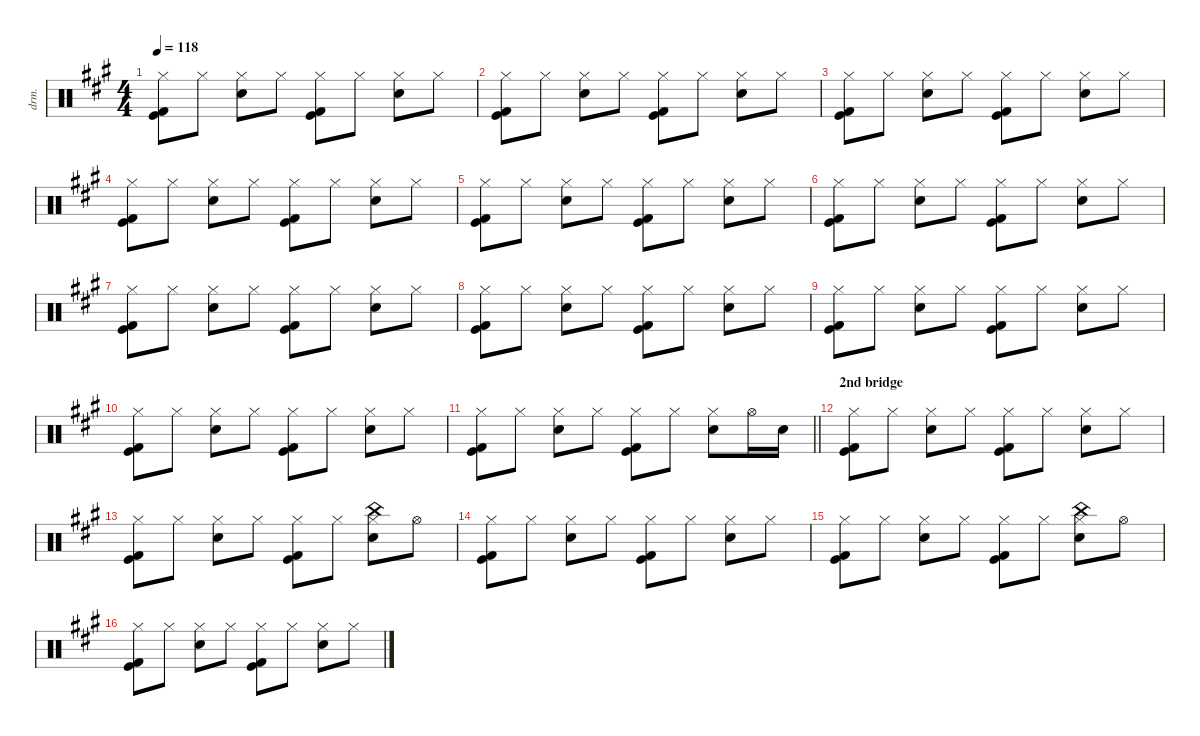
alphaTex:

\defaultSystemsLayout 4
\hideDynamics
\bracketExtendMode nobrackets
\otherSystemsTrackNameOrientation horizontal
\track ("drums" "drm.") {instrument percussion}
\staff {score}
\articulation defaults
\ts (4 4)
\tempo 118
\clef neutral
\ks f#minor
("Hi-Hat (closed)"{acc forcenatural} "Kick (hit)"{acc forcenatural} "Kick (hit) 2"{acc forcenatural}).8{dy f} "Hi-Hat (closed)"{acc forcenatural}.8{dy mf} ("Hi-Hat (closed)"{acc forcenatural} "Snare (hit) 2"{acc forcenatural}).8{dy f} "Hi-Hat (closed)"{acc forcenatural}.8{dy mf} ("Hi-Hat (closed)"{acc forcenatural} "Kick (hit)"{acc forcenatural} "Kick (hit) 2"{acc forcenatural}).8{dy f} "Hi-Hat (closed)"{acc forcenatural}.8{dy mf} ("Hi-Hat (closed)"{acc forcenatural} "Snare (hit) 2"{acc forcenatural}).8{dy f} "Hi-Hat (closed)"{acc forcenatural}.8{dy mf} |
("Hi-Hat (closed)"{acc forcenatural} "Kick (hit)"{acc forcenatural} "Kick (hit) 2"{acc forcenatural}).8{dy f} "Hi-Hat (closed)"{acc forcenatural}.8{dy mf} ("Hi-Hat (closed)"{acc forcenatural} "Snare (hit) 2"{acc forcenatural}).8{dy f} "Hi-Hat (closed)"{acc forcenatural}.8{dy mf} ("Hi-Hat (closed)"{acc forcenatural} "Kick (hit)"{acc forcenatural} "Kick (hit) 2"{acc forcenatural}).8{dy f} "Hi-Hat (closed)"{acc forcenatural}.8{dy mf} ("Hi-Hat (closed)"{acc forcenatural} "Snare (hit) 2"{acc forcenatural}).8{dy f} "Hi-Hat (closed)"{acc forcenatural}.8{dy mf} |
("Hi-Hat (closed)"{acc forcenatural} "Kick (hit)"{acc forcenatural} "Kick (hit) 2"{acc forcenatural}).8{dy f} "Hi-Hat (closed)"{acc forcenatural}.8{dy mf} ("Hi-Hat (closed)"{acc forcenatural} "Snare (hit) 2"{acc forcenatural}).8{dy f} "Hi-Hat (closed)"{acc forcenatural}.8{dy mf} ("Hi-Hat (closed)"{acc forcenatural} "Kick (hit)"{acc forcenatural} "Kick (hit) 2"{acc forcenatural}).8{dy f} "Hi-Hat (closed)"{acc forcenatural}.8{dy mf} ("Hi-Hat (closed)"{acc forcenatural} "Snare (hit) 2"{acc forcenatural}).8{dy f} "Hi-Hat (closed)"{acc forcenatural}.8{dy mf} |
("Hi-Hat (closed)"{acc forcenatural} "Kick (hit)"{acc forcenatural} "Kick (hit) 2"{acc forcenatural}).8{dy f} "Hi-Hat (closed)"{acc forcenatural}.8{dy mf} ("Hi-Hat (closed)"{acc forcenatural} "Snare (hit) 2"{acc forcenatural}).8{dy f} "Hi-Hat (closed)"{acc forcenatural}.8{dy mf} ("Hi-Hat (closed)"{acc forcenatural} "Kick (hit)"{acc forcenatural} "Kick (hit) 2"{acc forcenatural}).8{dy f} "Hi-Hat (closed)"{acc forcenatural}.8{dy mf} ("Hi-Hat (closed)"{acc forcenatural} "Snare (hit) 2"{acc forcenatural}).8{dy f} "Hi-Hat (closed)"{acc forcenatural}.8{dy mf} |
("Hi-Hat (closed)"{acc forcenatural} "Kick (hit)"{acc forcenatural} "Kick (hit) 2"{acc forcenatural}).8{dy f} "Hi-Hat (closed)"{acc forcenatural}.8{dy mf} ("Hi-Hat (closed)"{acc forcenatural} "Snare (hit) 2"{acc forcenatural}).8{dy f} "Hi-Hat (closed)"{acc forcenatural}.8{dy mf} ("Hi-Hat (closed)"{acc forcenatural} "Kick (hit)"{acc forcenatural} "Kick (hit) 2"{acc forcenatural}).8{dy f} "Hi-Hat (closed)"{acc forcenatural}.8{dy mf} ("Hi-Hat (closed)"{acc forcenatural} "Snare (hit) 2"{acc forcenatural}).8{dy f} "Hi-Hat (closed)"{acc forcenatural}.8{dy mf} |
("Hi-Hat (closed)"{acc forcenatural} "Kick (hit)"{acc forcenatural} "Kick (hit) 2"{acc forcenatural}).8{dy f} "Hi-Hat (closed)"{acc forcenatural}.8{dy mf} ("Hi-Hat (closed)"{acc forcenatural} "Snare (hit) 2"{acc forcenatural}).8{dy f} "Hi-Hat (closed)"{acc forcenatural}.8{dy mf} ("Hi-Hat (closed)"{acc forcenatural} "Kick (hit)"{acc forcenatural} "Kick (hit) 2"{acc forcenatural}).8{dy f} "Hi-Hat (closed)"{acc forcenatural}.8{dy mf} ("Hi-Hat (closed)"{acc forcenatural} "Snare (hit) 2"{acc forcenatural}).8{dy f} "Hi-Hat (closed)"{acc forcenatural}.8{dy mf} |
("Hi-Hat (closed)"{acc forcenatural} "Kick (hit)"{acc forcenatural} "Kick (hit) 2"{acc forcenatural}).8{dy f} "Hi-Hat (closed)"{acc forcenatural}.8{dy mf} ("Hi-Hat (closed)"{acc forcenatural} "Snare (hit) 2"{acc forcenatural}).8{dy f} "Hi-Hat (closed)"{acc forcenatural}.8{dy mf} ("Hi-Hat (closed)"{acc forcenatural} "Kick (hit)"{acc forcenatural} "Kick (hit) 2"{acc forcenatural}).8{dy f} "Hi-Hat (closed)"{acc forcenatural}.8{dy mf} ("Hi-Hat (closed)"{acc forcenatural} "Snare (hit) 2"{acc forcenatural}).8{dy f} "Hi-Hat (closed)"{acc forcenatural}.8{dy mf} |
("Hi-Hat (closed)"{acc forcenatural} "Kick (hit)"{acc forcenatural} "Kick (hit) 2"{acc forcenatural}).8{dy f} "Hi-Hat (closed)"{acc forcenatural}.8{dy mf} ("Hi-Hat (closed)"{acc forcenatural} "Snare (hit) 2"{acc forcenatural}).8{dy f} "Hi-Hat (closed)"{acc forcenatural}.8{dy mf} ("Hi-Hat (closed)"{acc forcenatural} "Kick (hit)"{acc forcenatural} "Kick (hit) 2"{acc forcenatural}).8{dy f} "Hi-Hat (closed)"{acc forcenatural}.8{dy mf} ("Hi-Hat (closed)"{acc forcenatural} "Snare (hit) 2"{acc forcenatural}).8{dy f} "Hi-Hat (closed)"{acc forcenatural}.8{dy mf} |
("Hi-Hat (closed)"{acc forcenatural} "Kick (hit)"{acc forcenatural} "Kick (hit) 2"{acc forcenatural}).8{dy f} "Hi-Hat (closed)"{acc forcenatural}.8{dy mf} ("Hi-Hat (closed)"{acc forcenatural} "Snare (hit) 2"{acc forcenatural}).8{dy f} "Hi-Hat (closed)"{acc forcenatural}.8{dy mf} ("Hi-Hat (closed)"{acc forcenatural} "Kick (hit)"{acc forcenatural} "Kick (hit) 2"{acc forcenatural}).8{dy f} "Hi-Hat (closed)"{acc forcenatural}.8{dy mf} ("Hi-Hat (closed)"{acc forcenatural} "Snare (hit) 2"{acc forcenatural}).8{dy f} "Hi-Hat (closed)"{acc forcenatural}.8{dy mf} |
("Hi-Hat (closed)"{acc forcenatural} "Kick (hit)"{acc forcenatural} "Kick (hit) 2"{acc forcenatural}).8{dy f} "Hi-Hat (closed)"{acc forcenatural}.8{dy mf} ("Hi-Hat (closed)"{acc forcenatural} "Snare (hit) 2"{acc forcenatural}).8{dy f} "Hi-Hat (closed)"{acc forcenatural}.8{dy mf} ("Hi-Hat (closed)"{acc forcenatural} "Kick (hit)"{acc forcenatural} "Kick (hit) 2"{acc forcenatural}).8{dy f} "Hi-Hat (closed)"{acc forcenatural}.8{dy mf} ("Hi-Hat (closed)"{acc forcenatural} "Snare (hit) 2"{acc forcenatural}).8{dy f} "Hi-Hat (closed)"{acc forcenatural}.8{dy mf} |
\barLineRight lightlight
("Hi-Hat (closed)"{acc forcenatural} "Kick (hit)"{acc forcenatural} "Kick (hit) 2"{acc forcenatural}).8{dy f} "Hi-Hat (closed)"{acc forcenatural}.8{dy mf} ("Hi-Hat (closed)"{acc forcenatural} "Snare (hit) 2"{acc forcenatural}).8{dy f} "Hi-Hat (closed)"{acc forcenatural}.8{dy mf} ("Hi-Hat (closed)"{acc forcenatural} "Kick (hit)"{acc forcenatural} "Kick (hit) 2"{acc forcenatural}).8{dy f} "Hi-Hat (closed)"{acc forcenatural}.8{dy mf} ("Hi-Hat (closed)"{acc forcenatural} "Snare (hit) 2"{acc forcenatural}).8{dy f} "Hi-Hat (open)"{acc forcenatural}.16{dy mf} "Snare (hit) 2"{acc forcenatural}.16 |
\section ("" "2nd bridge")
("Hi-Hat (closed)"{acc forcenatural} "Kick (hit)"{acc forcenatural} "Kick (hit) 2"{acc forcenatural}).8{dy f} "Hi-Hat (closed)"{acc forcenatural}.8{dy mf} ("Hi-Hat (closed)"{acc forcenatural} "Snare (hit) 2"{acc forcenatural}).8{dy f} "Hi-Hat (closed)"{acc forcenatural}.8{dy mf} ("Hi-Hat (closed)"{acc forcenatural} "Kick (hit)"{acc forcenatural} "Kick (hit) 2"{acc forcenatural}).8{dy f} "Hi-Hat (closed)"{acc forcenatural}.8{dy mf} ("Hi-Hat (closed)"{acc forcenatural} "Snare (hit) 2"{acc forcenatural}).8{dy f} "Hi-Hat (closed)"{acc forcenatural}.8{dy mf} |
("Hi-Hat (closed)"{acc forcenatural} "Kick (hit)"{acc forcenatural} "Kick (hit) 2"{acc forcenatural}).8{dy f} "Hi-Hat (closed)"{acc forcenatural}.8{dy mf} ("Hi-Hat (closed)"{acc forcenatural} "Snare (hit) 2"{acc forcenatural}).8{dy f} "Hi-Hat (closed)"{acc forcenatural}.8{dy mf} ("Hi-Hat (closed)"{acc forcenatural} "Kick (hit)"{acc forcenatural} "Kick (hit) 2"{acc forcenatural}).8{dy f} "Hi-Hat (closed)"{acc forcenatural}.8{dy mf} ("Hi-Hat (closed)"{acc forcenatural} "China (hit)"{acc forcenatural} "Snare (hit) 2"{acc forcenatural}).8{dy f} "Hi-Hat (open)"{acc forcenatural}.8{dy mf} |
("Hi-Hat (closed)"{acc forcenatural} "Kick (hit)"{acc forcenatural} "Kick (hit) 2"{acc forcenatural}).8{dy f} "Hi-Hat (closed)"{acc forcenatural}.8{dy mf} ("Hi-Hat (closed)"{acc forcenatural} "Snare (hit) 2"{acc forcenatural}).8{dy f} "Hi-Hat (closed)"{acc forcenatural}.8{dy mf} ("Hi-Hat (closed)"{acc forcenatural} "Kick (hit)"{acc forcenatural} "Kick (hit) 2"{acc forcenatural}).8{dy f} "Hi-Hat (closed)"{acc forcenatural}.8{dy mf} ("Hi-Hat (closed)"{acc forcenatural} "Snare (hit) 2"{acc forcenatural}).8{dy f} "Hi-Hat (closed)"{acc forcenatural}.8{dy mf} |
("Hi-Hat (closed)"{acc forcenatural} "Kick (hit)"{acc forcenatural} "Kick (hit) 2"{acc forcenatural}).8{dy f} "Hi-Hat (closed)"{acc forcenatural}.8{dy mf} ("Hi-Hat (closed)"{acc forcenatural} "Snare (hit) 2"{acc forcenatural}).8{dy f} "Hi-Hat (closed)"{acc forcenatural}.8{dy mf} ("Hi-Hat (closed)"{acc forcenatural} "Kick (hit)"{acc forcenatural} "Kick (hit) 2"{acc forcenatural}).8{dy f} "Hi-Hat (closed)"{acc forcenatural}.8{dy mf} ("Hi-Hat (closed)"{acc forcenatural} "China (hit)"{acc forcenatural} "Snare (hit) 2"{acc forcenatural}).8{dy f} "Hi-Hat (open)"{acc forcenatural}.8{dy mf} |
("Hi-Hat (closed)"{acc forcenatural} "Kick (hit)"{acc forcenatural} "Kick (hit) 2"{acc forcenatural}).8{dy f} "Hi-Hat (closed)"{acc forcenatural}.8{dy mf} ("Hi-Hat (closed)"{acc forcenatural} "Snare (hit) 2"{acc forcenatural}).8{dy f} "Hi-Hat (closed)"{acc forcenatural}.8{dy mf} ("Hi-Hat (closed)"{acc forcenatural} "Kick (hit)"{acc forcenatural} "Kick (hit) 2"{acc forcenatural}).8{dy f} "Hi-Hat (closed)"{acc forcenatural}.8{dy mf} ("Hi-Hat (closed)"{acc forcenatural} "Snare (hit) 2"{acc forcenatural}).8{dy f} "Hi-Hat (closed)"{acc forcenatural}.8{dy mf}
